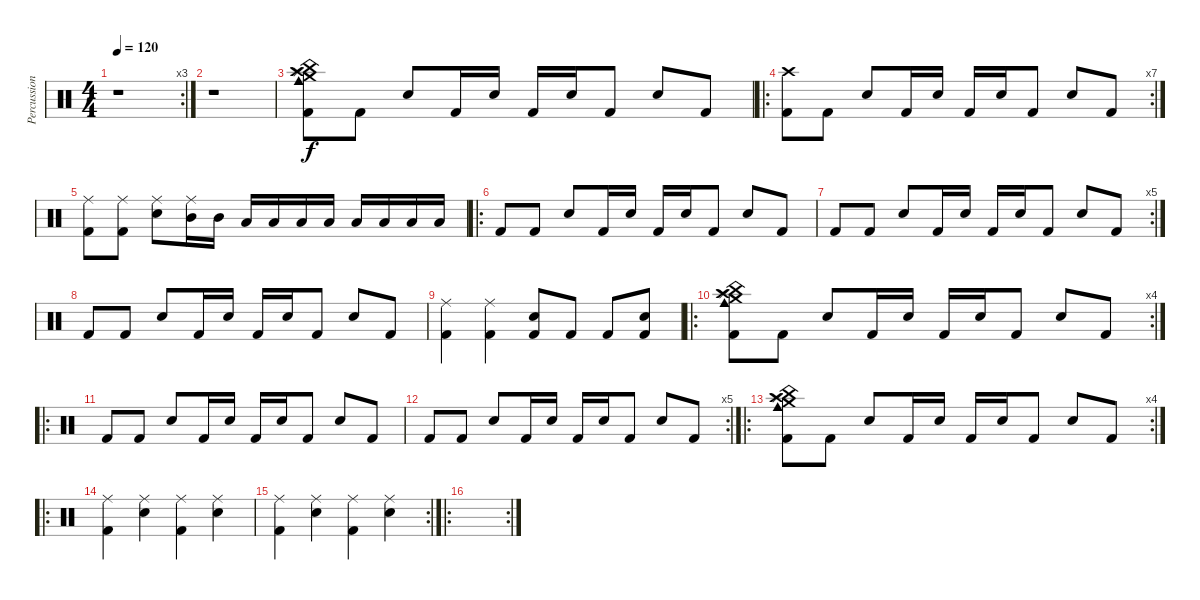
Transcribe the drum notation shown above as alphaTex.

\track ("Percussion" "Percussion") {instrument percussion}
\staff {score}
\articulation defaults
\rc 3
\ts (4 4)
\tempo 120
\clef neutral
\ks c
r.1{dy f} |
r.1 |
("Cowbell medium (hit)" "China (hit)" "Splash (hit)" "Crash high (hit)" "Crash medium (hit)" "Kick (hit) 2").8 "Kick (hit) 2".8 "Electric Snare (hit)".8 "Kick (hit) 2".16 "Electric Snare (hit)".16 "Kick (hit) 2".16 "Electric Snare (hit)".16 "Kick (hit) 2".8 "Electric Snare (hit)".8 "Kick (hit) 2".8 |
\ro
\rc 7
("Crash high (hit)" "Kick (hit) 2").8 "Kick (hit) 2".8 "Electric Snare (hit)".8 "Kick (hit) 2".16 "Electric Snare (hit)".16 "Kick (hit) 2".16 "Electric Snare (hit)".16 "Kick (hit) 2".8 "Electric Snare (hit)".8 "Kick (hit) 2".8 |
("Ride (middle)" "Kick (hit) 2").8 ("Ride (middle)" "Kick (hit) 2").8 ("Ride (middle)" "Electric Snare (hit)").8 ("Ride (middle)" "Mid Tom (hit)").16 "Mid Tom (hit)".16 "Low Tom (hit)".16 "Low Tom (hit)".16 "Low Tom (hit)".16 "Low Floor Tom (hit)".16 "Low Floor Tom (hit)".16 "Low Floor Tom (hit)".16 "Low Floor Tom (hit)".16 "Low Floor Tom (hit)".16 |
\ro "Kick (hit) 2".8 "Kick (hit) 2".8 "Electric Snare (hit)".8 "Kick (hit) 2".16 "Electric Snare (hit)".16 "Kick (hit) 2".16 "Electric Snare (hit)".16 "Kick (hit) 2".8 "Electric Snare (hit)".8 "Kick (hit) 2".8
|
\rc 5 "Kick (hit) 2".8 "Kick (hit) 2".8 "Electric Snare (hit)".8 "Kick (hit) 2".16 "Electric Snare (hit)".16 "Kick (hit) 2".16 "Electric Snare (hit)".16 "Kick (hit) 2".8 "Electric Snare (hit)".8 "Kick (hit) 2".8
|
"Kick (hit) 2".8 "Kick (hit) 2".8 "Electric Snare (hit)".8 "Kick (hit) 2".16 "Electric Snare (hit)".16 "Kick (hit) 2".16 "Electric Snare (hit)".16 "Kick (hit) 2".8 "Electric Snare (hit)".8 "Kick (hit) 2".8 |
("Ride (middle)" "Kick (hit) 2").4 ("Ride (middle)" "Kick (hit) 2").4 ("Electric Snare (hit)" "Kick (hit) 2").8 "Kick (hit) 2".8 "Kick (hit) 2".8 ("Electric Snare (hit)" "Kick (hit) 2").8 |
\ro
\rc 4
("Cowbell medium (hit)" "China (hit)" "Splash (hit)" "Crash high (hit)" "Crash medium (hit)" "Kick (hit) 2").8 "Kick (hit) 2".8 "Electric Snare (hit)".8 "Kick (hit) 2".16 "Electric Snare (hit)".16 "Kick (hit) 2".16 "Electric Snare (hit)".16 "Kick (hit) 2".8 "Electric Snare (hit)".8 "Kick (hit) 2".8 |
\ro "Kick (hit) 2".8 "Kick (hit) 2".8 "Electric Snare (hit)".8 "Kick (hit) 2".16 "Electric Snare (hit)".16 "Kick (hit) 2".16 "Electric Snare (hit)".16 "Kick (hit) 2".8 "Electric Snare (hit)".8 "Kick (hit) 2".8
|
\rc 5 "Kick (hit) 2".8 "Kick (hit) 2".8 "Electric Snare (hit)".8 "Kick (hit) 2".16 "Electric Snare (hit)".16 "Kick (hit) 2".16 "Electric Snare (hit)".16 "Kick (hit) 2".8 "Electric Snare (hit)".8 "Kick (hit) 2".8
|
\ro
\rc 4
("Cowbell medium (hit)" "China (hit)" "Splash (hit)" "Crash high (hit)" "Crash medium (hit)" "Kick (hit) 2").8 "Kick (hit) 2".8 "Electric Snare (hit)".8 "Kick (hit) 2".16 "Electric Snare (hit)".16 "Kick (hit) 2".16 "Electric Snare (hit)".16 "Kick (hit) 2".8 "Electric Snare (hit)".8 "Kick (hit) 2".8 |
\ro
("Ride (middle)" "Kick (hit) 2").4 ("Ride (middle)" "Electric Snare (hit)").4 ("Ride (middle)" "Kick (hit) 2").4 ("Ride (middle)" "Electric Snare (hit)").4 |
\rc 2
("Ride (middle)" "Kick (hit) 2").4 ("Ride (middle)" "Electric Snare (hit)").4 ("Ride (middle)" "Kick (hit) 2").4 ("Ride (middle)" "Electric Snare (hit)").4 |
\ro
\rc 2
